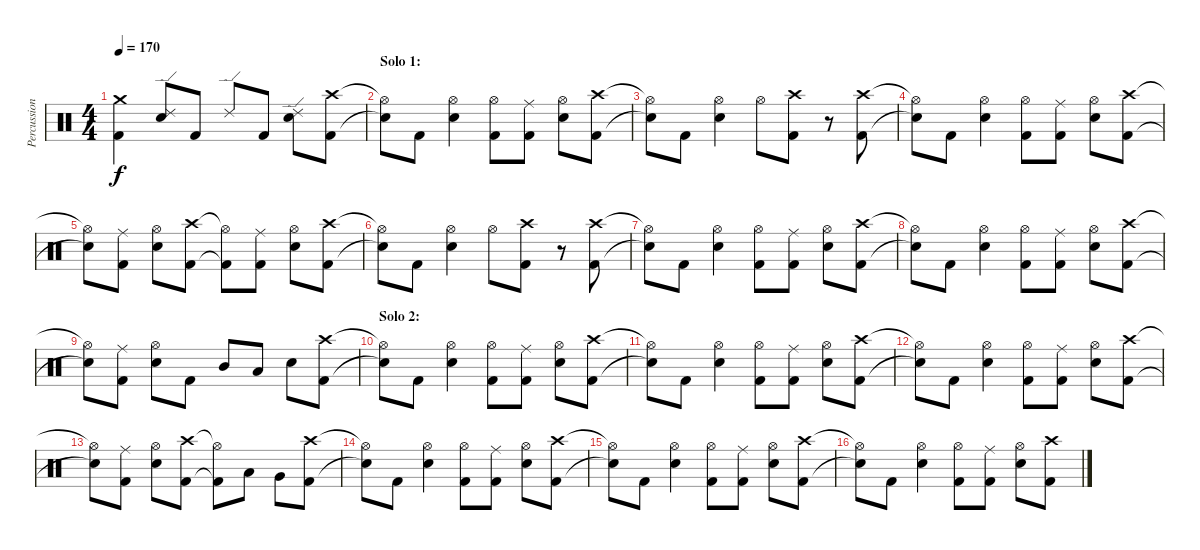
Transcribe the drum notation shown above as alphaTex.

\track ("Percussion" "Percussion") {instrument percussion}
\staff {score}
\articulation defaults
\ts (4 4)
\tempo 170
\clef neutral
\ks c
("Crash medium (hit)" "Kick (hit) 2").4{dy f} ("Ride (edge) 2" "Snare (hit) 2").8 "Kick (hit) 2".8 "Ride (edge) 2".8 "Kick (hit) 2".8 ("Ride (edge) 2" "Snare (hit) 2").8 ("Crash high (hit)" "Kick (hit) 2").8 |
\section ("" "Solo 1:")
("Hi-Hat (open)"{t} "Snare (hit)"{t}).8 "Kick (hit) 2".8 ("Hi-Hat (open)" "Snare (hit) 2").4 ("Hi-Hat (open)" "Kick (hit) 2").8 ("Ride (middle)" "Kick (hit) 2").8 ("Hi-Hat (open)" "Snare (hit) 2").8 ("Crash high (hit)" "Kick (hit) 2").8 |
("Hi-Hat (open)"{t} "Snare (hit)"{t}).8 "Kick (hit) 2".8 ("Hi-Hat (open)" "Snare (hit) 2").4 "Hi-Hat (open)".8 ("Crash high (hit)" "Kick (hit) 2").8 r.8 ("Crash high (hit)" "Kick (hit) 2").8 |
("Hi-Hat (open)"{t} "Snare (hit)"{t}).8 "Kick (hit) 2".8 ("Hi-Hat (open)" "Snare (hit) 2").4 ("Hi-Hat (open)" "Kick (hit) 2").8 ("Ride (middle)" "Kick (hit) 2").8 ("Hi-Hat (open)" "Snare (hit) 2").8 ("Crash high (hit)" "Kick (hit) 2").8 |
("Hi-Hat (open)"{t} "Snare (hit)"{t}).8 ("Ride (middle)" "Kick (hit) 2").8 ("Hi-Hat (open)" "Snare (hit) 2").8 ("Crash high (hit)" "Kick (hit) 2").8 ("Hi-Hat (open)"{t} "Kick (hit) 2"{t}).8 ("Ride (middle)" "Kick (hit) 2").8 ("Hi-Hat (open)" "Snare (hit) 2").8 ("Crash high (hit)" "Kick (hit) 2").8 |
("Hi-Hat (open)"{t} "Snare (hit)"{t}).8 "Kick (hit) 2".8 ("Hi-Hat (open)" "Snare (hit) 2").4 "Hi-Hat (open)".8 ("Crash high (hit)" "Kick (hit) 2").8 r.8 ("Crash high (hit)" "Kick (hit) 2").8 |
("Hi-Hat (open)"{t} "Snare (hit)"{t}).8 "Kick (hit) 2".8 ("Hi-Hat (open)" "Snare (hit) 2").4 ("Hi-Hat (open)" "Kick (hit) 2").8 ("Ride (middle)" "Kick (hit) 2").8 ("Hi-Hat (open)" "Snare (hit) 2").8 ("Crash high (hit)" "Kick (hit) 2").8 |
("Hi-Hat (open)"{t} "Snare (hit)"{t}).8 "Kick (hit) 2".8 ("Hi-Hat (open)" "Snare (hit) 2").4 ("Hi-Hat (open)" "Kick (hit) 2").8 ("Ride (middle)" "Kick (hit) 2").8 ("Hi-Hat (open)" "Snare (hit) 2").8 ("Crash high (hit)" "Kick (hit) 2").8 |
("Hi-Hat (open)"{t} "Snare (hit)"{t}).8 ("Ride (middle)" "Kick (hit) 2").8 ("Hi-Hat (open)" "Snare (hit) 2").8 "Kick (hit) 2".8 "Mid Tom (hit)".8 "Low Tom (hit)".8 "Snare (hit) 2".8 ("Crash high (hit)" "Kick (hit) 2").8 |
\section ("" "Solo 2:")
("Hi-Hat (open)"{t} "Snare (hit)"{t}).8 "Kick (hit) 2".8 ("Hi-Hat (open)" "Snare (hit) 2").4 ("Hi-Hat (open)" "Kick (hit) 2").8 ("Ride (middle)" "Kick (hit) 2").8 ("Hi-Hat (open)" "Snare (hit) 2").8 ("Crash high (hit)" "Kick (hit) 2").8 |
("Hi-Hat (open)"{t} "Snare (hit)"{t}).8 "Kick (hit) 2".8 ("Hi-Hat (open)" "Snare (hit) 2").4 ("Hi-Hat (open)" "Kick (hit) 2").8 ("Ride (middle)" "Kick (hit) 2").8 ("Hi-Hat (open)" "Snare (hit) 2").8 ("Crash high (hit)" "Kick (hit) 2").8 |
("Hi-Hat (open)"{t} "Snare (hit)"{t}).8 "Kick (hit) 2".8 ("Hi-Hat (open)" "Snare (hit) 2").4 ("Hi-Hat (open)" "Kick (hit) 2").8 ("Ride (middle)" "Kick (hit) 2").8 ("Hi-Hat (open)" "Snare (hit) 2").8 ("Crash high (hit)" "Kick (hit) 2").8 |
("Hi-Hat (open)"{t} "Snare (hit)"{t}).8 ("Ride (middle)" "Kick (hit) 2").8 ("Hi-Hat (open)" "Snare (hit) 2").8 ("Crash high (hit)" "Kick (hit) 2").8 ("Hi-Hat (open)"{t} "Kick (hit) 2"{t}).8 "Low Tom (hit)".8 "Very Low Tom (hit)".8 ("Crash high (hit)" "Kick (hit) 2").8 |
("Hi-Hat (open)"{t} "Snare (hit)"{t}).8 "Kick (hit) 2".8 ("Hi-Hat (open)" "Snare (hit) 2").4 ("Hi-Hat (open)" "Kick (hit) 2").8 ("Ride (middle)" "Kick (hit) 2").8 ("Hi-Hat (open)" "Snare (hit) 2").8 ("Crash high (hit)" "Kick (hit) 2").8 |
("Hi-Hat (open)"{t} "Snare (hit)"{t}).8 "Kick (hit) 2".8 ("Hi-Hat (open)" "Snare (hit) 2").4 ("Hi-Hat (open)" "Kick (hit) 2").8 ("Ride (middle)" "Kick (hit) 2").8 ("Hi-Hat (open)" "Snare (hit) 2").8 ("Crash high (hit)" "Kick (hit) 2").8 |
("Hi-Hat (open)"{t} "Snare (hit)"{t}).8 "Kick (hit) 2".8 ("Hi-Hat (open)" "Snare (hit) 2").4 ("Hi-Hat (open)" "Kick (hit) 2").8 ("Ride (middle)" "Kick (hit) 2").8 ("Hi-Hat (open)" "Snare (hit) 2").8 ("Crash high (hit)" "Kick (hit) 2").8
